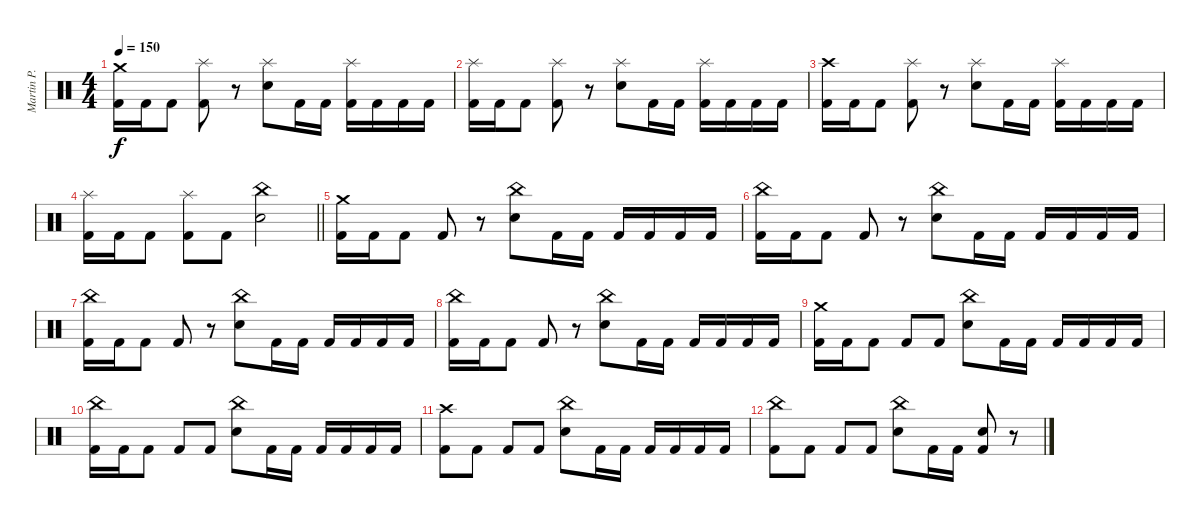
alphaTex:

\track ("Martin P." "Martin P.") {instrument percussion}
\staff {score}
\articulation defaults
\ts (4 4)
\tempo 150
\clef neutral
\ks c
("Crash medium (hit)" "Kick (hit) 2").16{dy f} "Kick (hit) 2".16 "Kick (hit) 2".8 ("Splash (hit)" "Kick (hit) 2").8 r.8 ("Splash (hit)" "Electric Snare (hit)").8 "Kick (hit) 2".16 "Kick (hit) 2".16 ("Splash (hit)" "Kick (hit) 2").16 "Kick (hit) 2".16 "Kick (hit) 2".16 "Kick (hit) 2".16 |
("Splash (hit)" "Kick (hit) 2").16 "Kick (hit) 2".16 "Kick (hit) 2".8 ("Splash (hit)" "Kick (hit) 2").8 r.8 ("Splash (hit)" "Electric Snare (hit)").8 "Kick (hit) 2".16 "Kick (hit) 2".16 ("Splash (hit)" "Kick (hit) 2").16 "Kick (hit) 2".16 "Kick (hit) 2".16 "Kick (hit) 2".16 |
("Crash high (hit)" "Kick (hit) 2").16 "Kick (hit) 2".16 "Kick (hit) 2".8 ("Splash (hit)" "Kick (hit) 2").8 r.8 ("Splash (hit)" "Electric Snare (hit)").8 "Kick (hit) 2".16 "Kick (hit) 2".16 ("Splash (hit)" "Kick (hit) 2").16 "Kick (hit) 2".16 "Kick (hit) 2".16 "Kick (hit) 2".16 |
\barLineRight lightlight
("Splash (hit)" "Kick (hit) 2").16 "Kick (hit) 2".16 "Kick (hit) 2".8 ("Splash (hit)" "Kick (hit) 2").8 "Kick (hit) 2".8 ("China (hit)" "Electric Snare (hit)").2 |
("Crash medium (hit)" "Kick (hit) 2").16 "Kick (hit) 2".16 "Kick (hit) 2".8 "Kick (hit) 2".8 r.8 ("China (hit)" "Electric Snare (hit)").8 "Kick (hit) 2".16 "Kick (hit) 2".16 "Kick (hit) 2".16 "Kick (hit) 2".16 "Kick (hit) 2".16 "Kick (hit) 2".16 |
("China (hit)" "Kick (hit) 2").16 "Kick (hit) 2".16 "Kick (hit) 2".8 "Kick (hit) 2".8 r.8 ("China (hit)" "Electric Snare (hit)").8 "Kick (hit) 2".16 "Kick (hit) 2".16 "Kick (hit) 2".16 "Kick (hit) 2".16 "Kick (hit) 2".16 "Kick (hit) 2".16 |
("China (hit)" "Kick (hit) 2").16 "Kick (hit) 2".16 "Kick (hit) 2".8 "Kick (hit) 2".8 r.8 ("China (hit)" "Electric Snare (hit)").8 "Kick (hit) 2".16 "Kick (hit) 2".16 "Kick (hit) 2".16 "Kick (hit) 2".16 "Kick (hit) 2".16 "Kick (hit) 2".16 |
("China (hit)" "Kick (hit) 2").16 "Kick (hit) 2".16 "Kick (hit) 2".8 "Kick (hit) 2".8 r.8 ("China (hit)" "Electric Snare (hit)").8 "Kick (hit) 2".16 "Kick (hit) 2".16 "Kick (hit) 2".16 "Kick (hit) 2".16 "Kick (hit) 2".16 "Kick (hit) 2".16 |
("Crash medium (hit)" "Kick (hit) 2").16 "Kick (hit) 2".16 "Kick (hit) 2".8 "Kick (hit) 2".8 "Kick (hit) 2".8 ("China (hit)" "Electric Snare (hit)").8 "Kick (hit) 2".16 "Kick (hit) 2".16 "Kick (hit) 2".16 "Kick (hit) 2".16 "Kick (hit) 2".16 "Kick (hit) 2".16 |
("China (hit)" "Kick (hit) 2").16 "Kick (hit) 2".16 "Kick (hit) 2".8 "Kick (hit) 2".8 "Kick (hit) 2".8 ("China (hit)" "Electric Snare (hit)").8 "Kick (hit) 2".16 "Kick (hit) 2".16 "Kick (hit) 2".16 "Kick (hit) 2".16 "Kick (hit) 2".16 "Kick (hit) 2".16 |
("Crash high (hit)" "Kick (hit) 2").8 "Kick (hit) 2".8 "Kick (hit) 2".8 "Kick (hit) 2".8 ("China (hit)" "Electric Snare (hit)").8 "Kick (hit) 2".16 "Kick (hit) 2".16 "Kick (hit) 2".16 "Kick (hit) 2".16 "Kick (hit) 2".16 "Kick (hit) 2".16 |
("China (hit)" "Kick (hit) 2").8 "Kick (hit) 2".8 "Kick (hit) 2".8 "Kick (hit) 2".8 ("China (hit)" "Electric Snare (hit)").8 "Kick (hit) 2".16 "Kick (hit) 2".16 ("Electric Snare (hit)" "Kick (hit) 2").8 r.8
